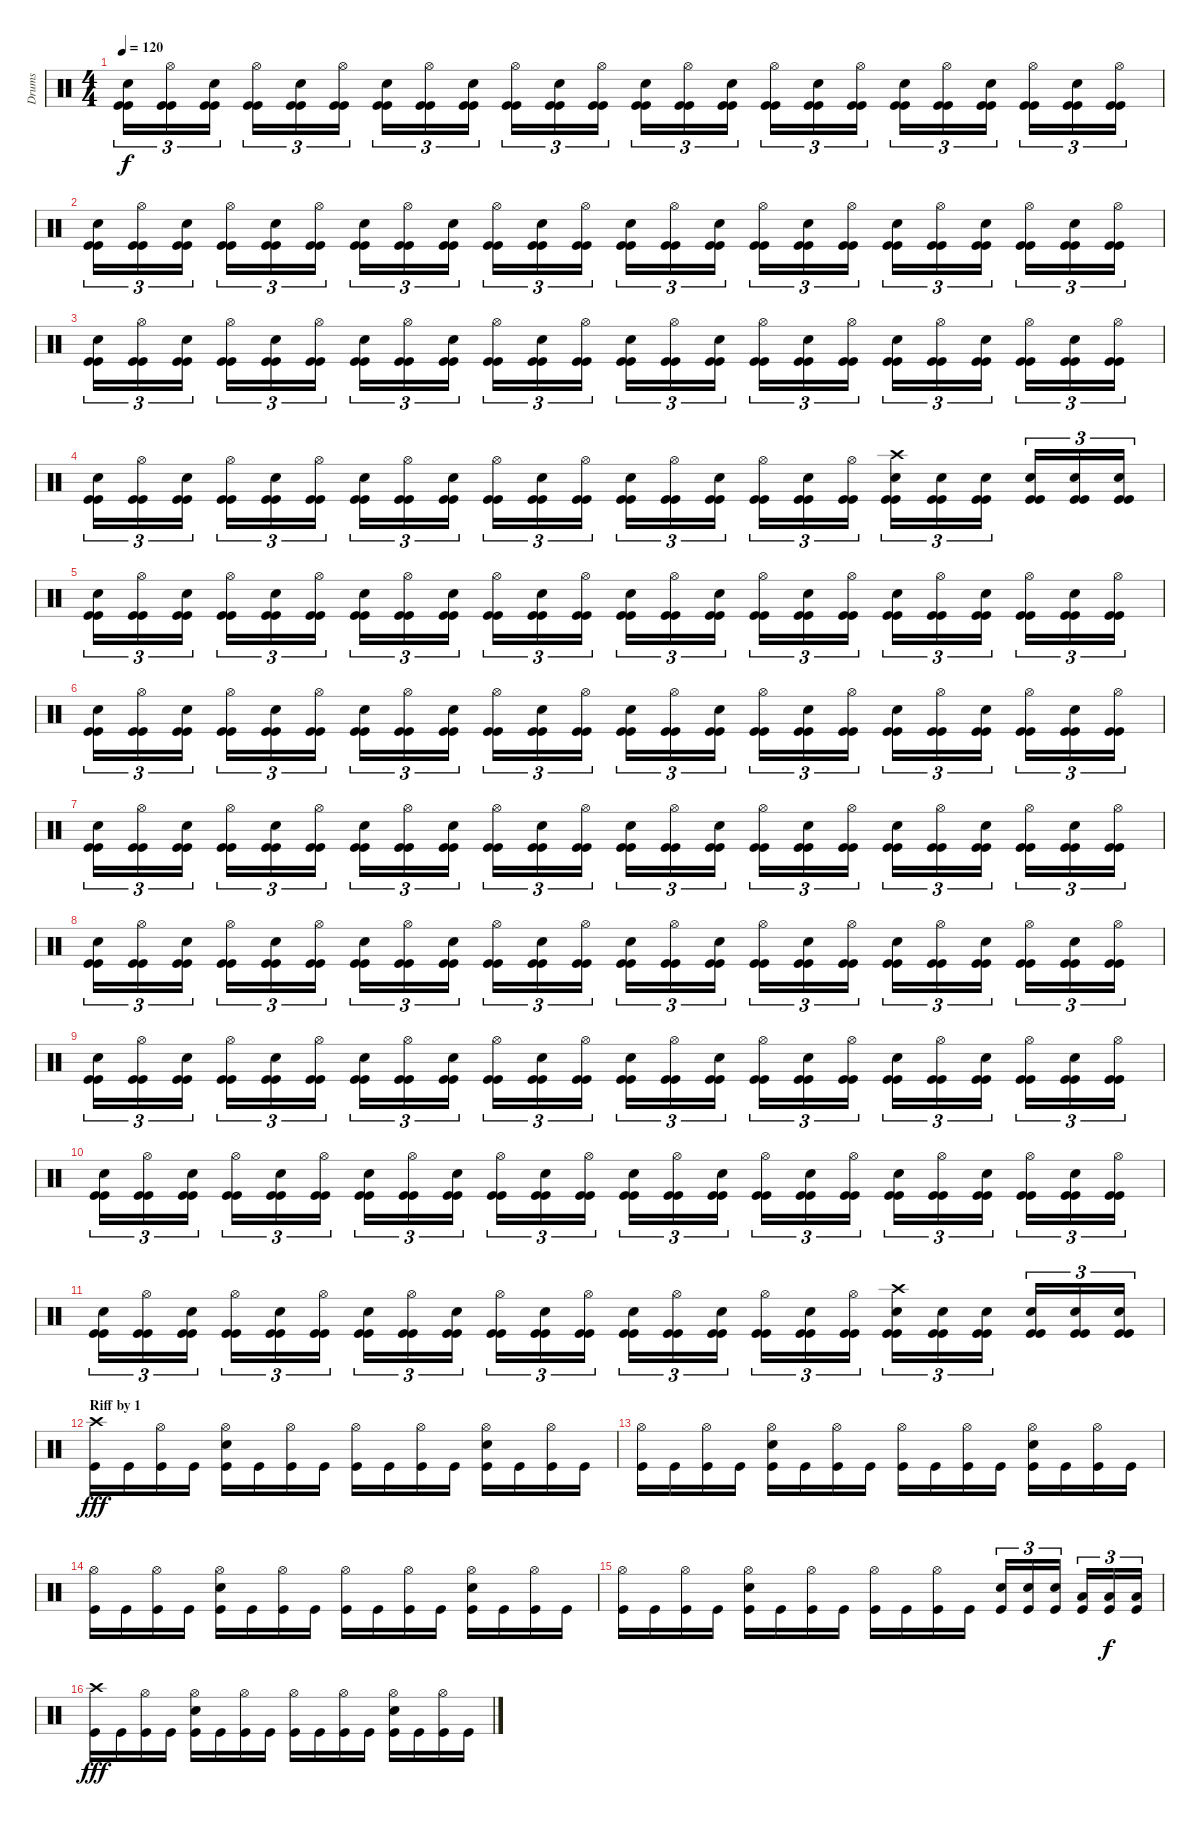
\track ("Drums" "Drums") {instrument percussion}
\staff {score}
\articulation defaults
\ts (4 4)
\tempo 120
\clef neutral
\ks c
("Electric Snare (hit)" "Kick (hit)" "Kick (hit)").16{tu (3 2) dy f} ("Hi-Hat (open)" "Kick (hit)" "Kick (hit)").16{tu (3 2)} ("Electric Snare (hit)" "Kick (hit)" "Kick (hit)").16{tu (3 2)} ("Hi-Hat (open)" "Kick (hit)" "Kick (hit)").16{tu (3 2)} ("Electric Snare (hit)" "Kick (hit)" "Kick (hit)").16{tu (3 2)} ("Hi-Hat (open)" "Kick (hit)" "Kick (hit)").16{tu (3 2)} ("Electric Snare (hit)" "Kick (hit)" "Kick (hit)").16{tu (3 2)} ("Hi-Hat (open)" "Kick (hit)" "Kick (hit)").16{tu (3 2)} ("Electric Snare (hit)" "Kick (hit)" "Kick (hit)").16{tu (3 2)} ("Hi-Hat (open)" "Kick (hit)" "Kick (hit)").16{tu (3 2)} ("Electric Snare (hit)" "Kick (hit)" "Kick (hit)").16{tu (3 2)} ("Hi-Hat (open)" "Kick (hit)" "Kick (hit)").16{tu (3 2)} ("Electric Snare (hit)" "Kick (hit)" "Kick (hit)").16{tu (3 2)} ("Hi-Hat (open)" "Kick (hit)" "Kick (hit)").16{tu (3 2)} ("Electric Snare (hit)" "Kick (hit)" "Kick (hit)").16{tu (3 2)} ("Hi-Hat (open)" "Kick (hit)" "Kick (hit)").16{tu (3 2)} ("Electric Snare (hit)" "Kick (hit)" "Kick (hit)").16{tu (3 2)} ("Hi-Hat (open)" "Kick (hit)" "Kick (hit)").16{tu (3 2)} ("Electric Snare (hit)" "Kick (hit)" "Kick (hit)").16{tu (3 2)} ("Hi-Hat (open)" "Kick (hit)" "Kick (hit)").16{tu (3 2)} ("Electric Snare (hit)" "Kick (hit)" "Kick (hit)").16{tu (3 2)} ("Hi-Hat (open)" "Kick (hit)" "Kick (hit)").16{tu (3 2)} ("Electric Snare (hit)" "Kick (hit)" "Kick (hit)").16{tu (3 2)} ("Hi-Hat (open)" "Kick (hit)" "Kick (hit)").16{tu (3 2)} |
("Electric Snare (hit)" "Kick (hit)" "Kick (hit)").16{tu (3 2)} ("Hi-Hat (open)" "Kick (hit)" "Kick (hit)").16{tu (3 2)} ("Electric Snare (hit)" "Kick (hit)" "Kick (hit)").16{tu (3 2)} ("Hi-Hat (open)" "Kick (hit)" "Kick (hit)").16{tu (3 2)} ("Electric Snare (hit)" "Kick (hit)" "Kick (hit)").16{tu (3 2)} ("Hi-Hat (open)" "Kick (hit)" "Kick (hit)").16{tu (3 2)} ("Electric Snare (hit)" "Kick (hit)" "Kick (hit)").16{tu (3 2)} ("Hi-Hat (open)" "Kick (hit)" "Kick (hit)").16{tu (3 2)} ("Electric Snare (hit)" "Kick (hit)" "Kick (hit)").16{tu (3 2)} ("Hi-Hat (open)" "Kick (hit)" "Kick (hit)").16{tu (3 2)} ("Electric Snare (hit)" "Kick (hit)" "Kick (hit)").16{tu (3 2)} ("Hi-Hat (open)" "Kick (hit)" "Kick (hit)").16{tu (3 2)} ("Electric Snare (hit)" "Kick (hit)" "Kick (hit)").16{tu (3 2)} ("Hi-Hat (open)" "Kick (hit)" "Kick (hit)").16{tu (3 2)} ("Electric Snare (hit)" "Kick (hit)" "Kick (hit)").16{tu (3 2)} ("Hi-Hat (open)" "Kick (hit)" "Kick (hit)").16{tu (3 2)} ("Electric Snare (hit)" "Kick (hit)" "Kick (hit)").16{tu (3 2)} ("Hi-Hat (open)" "Kick (hit)" "Kick (hit)").16{tu (3 2)} ("Electric Snare (hit)" "Kick (hit)" "Kick (hit)").16{tu (3 2)} ("Hi-Hat (open)" "Kick (hit)" "Kick (hit)").16{tu (3 2)} ("Electric Snare (hit)" "Kick (hit)" "Kick (hit)").16{tu (3 2)} ("Hi-Hat (open)" "Kick (hit)" "Kick (hit)").16{tu (3 2)} ("Electric Snare (hit)" "Kick (hit)" "Kick (hit)").16{tu (3 2)} ("Hi-Hat (open)" "Kick (hit)" "Kick (hit)").16{tu (3 2)} |
("Electric Snare (hit)" "Kick (hit)" "Kick (hit)").16{tu (3 2)} ("Hi-Hat (open)" "Kick (hit)" "Kick (hit)").16{tu (3 2)} ("Electric Snare (hit)" "Kick (hit)" "Kick (hit)").16{tu (3 2)} ("Hi-Hat (open)" "Kick (hit)" "Kick (hit)").16{tu (3 2)} ("Electric Snare (hit)" "Kick (hit)" "Kick (hit)").16{tu (3 2)} ("Hi-Hat (open)" "Kick (hit)" "Kick (hit)").16{tu (3 2)} ("Electric Snare (hit)" "Kick (hit)" "Kick (hit)").16{tu (3 2)} ("Hi-Hat (open)" "Kick (hit)" "Kick (hit)").16{tu (3 2)} ("Electric Snare (hit)" "Kick (hit)" "Kick (hit)").16{tu (3 2)} ("Hi-Hat (open)" "Kick (hit)" "Kick (hit)").16{tu (3 2)} ("Electric Snare (hit)" "Kick (hit)" "Kick (hit)").16{tu (3 2)} ("Hi-Hat (open)" "Kick (hit)" "Kick (hit)").16{tu (3 2)} ("Electric Snare (hit)" "Kick (hit)" "Kick (hit)").16{tu (3 2)} ("Hi-Hat (open)" "Kick (hit)" "Kick (hit)").16{tu (3 2)} ("Electric Snare (hit)" "Kick (hit)" "Kick (hit)").16{tu (3 2)} ("Hi-Hat (open)" "Kick (hit)" "Kick (hit)").16{tu (3 2)} ("Electric Snare (hit)" "Kick (hit)" "Kick (hit)").16{tu (3 2)} ("Hi-Hat (open)" "Kick (hit)" "Kick (hit)").16{tu (3 2)} ("Electric Snare (hit)" "Kick (hit)" "Kick (hit)").16{tu (3 2)} ("Hi-Hat (open)" "Kick (hit)" "Kick (hit)").16{tu (3 2)} ("Electric Snare (hit)" "Kick (hit)" "Kick (hit)").16{tu (3 2)} ("Hi-Hat (open)" "Kick (hit)" "Kick (hit)").16{tu (3 2)} ("Electric Snare (hit)" "Kick (hit)" "Kick (hit)").16{tu (3 2)} ("Hi-Hat (open)" "Kick (hit)" "Kick (hit)").16{tu (3 2)} |
("Electric Snare (hit)" "Kick (hit)" "Kick (hit)").16{tu (3 2)} ("Hi-Hat (open)" "Kick (hit)" "Kick (hit)").16{tu (3 2)} ("Electric Snare (hit)" "Kick (hit)" "Kick (hit)").16{tu (3 2)} ("Hi-Hat (open)" "Kick (hit)" "Kick (hit)").16{tu (3 2)} ("Electric Snare (hit)" "Kick (hit)" "Kick (hit)").16{tu (3 2)} ("Hi-Hat (open)" "Kick (hit)" "Kick (hit)").16{tu (3 2)} ("Electric Snare (hit)" "Kick (hit)" "Kick (hit)").16{tu (3 2)} ("Hi-Hat (open)" "Kick (hit)" "Kick (hit)").16{tu (3 2)} ("Electric Snare (hit)" "Kick (hit)" "Kick (hit)").16{tu (3 2)} ("Hi-Hat (open)" "Kick (hit)" "Kick (hit)").16{tu (3 2)} ("Electric Snare (hit)" "Kick (hit)" "Kick (hit)").16{tu (3 2)} ("Hi-Hat (open)" "Kick (hit)" "Kick (hit)").16{tu (3 2)} ("Electric Snare (hit)" "Kick (hit)" "Kick (hit)").16{tu (3 2)} ("Hi-Hat (open)" "Kick (hit)" "Kick (hit)").16{tu (3 2)} ("Electric Snare (hit)" "Kick (hit)" "Kick (hit)").16{tu (3 2)} ("Hi-Hat (open)" "Kick (hit)" "Kick (hit)").16{tu (3 2)} ("Electric Snare (hit)" "Kick (hit)" "Kick (hit)").16{tu (3 2)} ("Hi-Hat (open)" "Kick (hit)" "Kick (hit)").16{tu (3 2)} ("Crash high (hit)" "Electric Snare (hit)" "Kick (hit)" "Kick (hit)").16{tu (3 2)} ("Electric Snare (hit)" "Kick (hit)" "Kick (hit)").16{tu (3 2)} ("Electric Snare (hit)" "Kick (hit)" "Kick (hit)").16{tu (3 2)} ("Electric Snare (hit)" "Kick (hit)" "Kick (hit)").16{tu (3 2)} ("Electric Snare (hit)" "Kick (hit)" "Kick (hit)").16{tu (3 2)} ("Electric Snare (hit)" "Kick (hit)" "Kick (hit)").16{tu (3 2)} |
("Electric Snare (hit)" "Kick (hit)" "Kick (hit)").16{tu (3 2)} ("Hi-Hat (open)" "Kick (hit)" "Kick (hit)").16{tu (3 2)} ("Electric Snare (hit)" "Kick (hit)" "Kick (hit)").16{tu (3 2)} ("Hi-Hat (open)" "Kick (hit)" "Kick (hit)").16{tu (3 2)} ("Electric Snare (hit)" "Kick (hit)" "Kick (hit)").16{tu (3 2)} ("Hi-Hat (open)" "Kick (hit)" "Kick (hit)").16{tu (3 2)} ("Electric Snare (hit)" "Kick (hit)" "Kick (hit)").16{tu (3 2)} ("Hi-Hat (open)" "Kick (hit)" "Kick (hit)").16{tu (3 2)} ("Electric Snare (hit)" "Kick (hit)" "Kick (hit)").16{tu (3 2)} ("Hi-Hat (open)" "Kick (hit)" "Kick (hit)").16{tu (3 2)} ("Electric Snare (hit)" "Kick (hit)" "Kick (hit)").16{tu (3 2)} ("Hi-Hat (open)" "Kick (hit)" "Kick (hit)").16{tu (3 2)} ("Electric Snare (hit)" "Kick (hit)" "Kick (hit)").16{tu (3 2)} ("Hi-Hat (open)" "Kick (hit)" "Kick (hit)").16{tu (3 2)} ("Electric Snare (hit)" "Kick (hit)" "Kick (hit)").16{tu (3 2)} ("Hi-Hat (open)" "Kick (hit)" "Kick (hit)").16{tu (3 2)} ("Electric Snare (hit)" "Kick (hit)" "Kick (hit)").16{tu (3 2)} ("Hi-Hat (open)" "Kick (hit)" "Kick (hit)").16{tu (3 2)} ("Electric Snare (hit)" "Kick (hit)" "Kick (hit)").16{tu (3 2)} ("Hi-Hat (open)" "Kick (hit)" "Kick (hit)").16{tu (3 2)} ("Electric Snare (hit)" "Kick (hit)" "Kick (hit)").16{tu (3 2)} ("Hi-Hat (open)" "Kick (hit)" "Kick (hit)").16{tu (3 2)} ("Electric Snare (hit)" "Kick (hit)" "Kick (hit)").16{tu (3 2)} ("Hi-Hat (open)" "Kick (hit)" "Kick (hit)").16{tu (3 2)} |
("Electric Snare (hit)" "Kick (hit)" "Kick (hit)").16{tu (3 2)} ("Hi-Hat (open)" "Kick (hit)" "Kick (hit)").16{tu (3 2)} ("Electric Snare (hit)" "Kick (hit)" "Kick (hit)").16{tu (3 2)} ("Hi-Hat (open)" "Kick (hit)" "Kick (hit)").16{tu (3 2)} ("Electric Snare (hit)" "Kick (hit)" "Kick (hit)").16{tu (3 2)} ("Hi-Hat (open)" "Kick (hit)" "Kick (hit)").16{tu (3 2)} ("Electric Snare (hit)" "Kick (hit)" "Kick (hit)").16{tu (3 2)} ("Hi-Hat (open)" "Kick (hit)" "Kick (hit)").16{tu (3 2)} ("Electric Snare (hit)" "Kick (hit)" "Kick (hit)").16{tu (3 2)} ("Hi-Hat (open)" "Kick (hit)" "Kick (hit)").16{tu (3 2)} ("Electric Snare (hit)" "Kick (hit)" "Kick (hit)").16{tu (3 2)} ("Hi-Hat (open)" "Kick (hit)" "Kick (hit)").16{tu (3 2)} ("Electric Snare (hit)" "Kick (hit)" "Kick (hit)").16{tu (3 2)} ("Hi-Hat (open)" "Kick (hit)" "Kick (hit)").16{tu (3 2)} ("Electric Snare (hit)" "Kick (hit)" "Kick (hit)").16{tu (3 2)} ("Hi-Hat (open)" "Kick (hit)" "Kick (hit)").16{tu (3 2)} ("Electric Snare (hit)" "Kick (hit)" "Kick (hit)").16{tu (3 2)} ("Hi-Hat (open)" "Kick (hit)" "Kick (hit)").16{tu (3 2)} ("Electric Snare (hit)" "Kick (hit)" "Kick (hit)").16{tu (3 2)} ("Hi-Hat (open)" "Kick (hit)" "Kick (hit)").16{tu (3 2)} ("Electric Snare (hit)" "Kick (hit)" "Kick (hit)").16{tu (3 2)} ("Hi-Hat (open)" "Kick (hit)" "Kick (hit)").16{tu (3 2)} ("Electric Snare (hit)" "Kick (hit)" "Kick (hit)").16{tu (3 2)} ("Hi-Hat (open)" "Kick (hit)" "Kick (hit)").16{tu (3 2)} |
("Electric Snare (hit)" "Kick (hit)" "Kick (hit)").16{tu (3 2)} ("Hi-Hat (open)" "Kick (hit)" "Kick (hit)").16{tu (3 2)} ("Electric Snare (hit)" "Kick (hit)" "Kick (hit)").16{tu (3 2)} ("Hi-Hat (open)" "Kick (hit)" "Kick (hit)").16{tu (3 2)} ("Electric Snare (hit)" "Kick (hit)" "Kick (hit)").16{tu (3 2)} ("Hi-Hat (open)" "Kick (hit)" "Kick (hit)").16{tu (3 2)} ("Electric Snare (hit)" "Kick (hit)" "Kick (hit)").16{tu (3 2)} ("Hi-Hat (open)" "Kick (hit)" "Kick (hit)").16{tu (3 2)} ("Electric Snare (hit)" "Kick (hit)" "Kick (hit)").16{tu (3 2)} ("Hi-Hat (open)" "Kick (hit)" "Kick (hit)").16{tu (3 2)} ("Electric Snare (hit)" "Kick (hit)" "Kick (hit)").16{tu (3 2)} ("Hi-Hat (open)" "Kick (hit)" "Kick (hit)").16{tu (3 2)} ("Electric Snare (hit)" "Kick (hit)" "Kick (hit)").16{tu (3 2)} ("Hi-Hat (open)" "Kick (hit)" "Kick (hit)").16{tu (3 2)} ("Electric Snare (hit)" "Kick (hit)" "Kick (hit)").16{tu (3 2)} ("Hi-Hat (open)" "Kick (hit)" "Kick (hit)").16{tu (3 2)} ("Electric Snare (hit)" "Kick (hit)" "Kick (hit)").16{tu (3 2)} ("Hi-Hat (open)" "Kick (hit)" "Kick (hit)").16{tu (3 2)} ("Electric Snare (hit)" "Kick (hit)" "Kick (hit)").16{tu (3 2)} ("Hi-Hat (open)" "Kick (hit)" "Kick (hit)").16{tu (3 2)} ("Electric Snare (hit)" "Kick (hit)" "Kick (hit)").16{tu (3 2)} ("Hi-Hat (open)" "Kick (hit)" "Kick (hit)").16{tu (3 2)} ("Electric Snare (hit)" "Kick (hit)" "Kick (hit)").16{tu (3 2)} ("Hi-Hat (open)" "Kick (hit)" "Kick (hit)").16{tu (3 2)} |
("Electric Snare (hit)" "Kick (hit)" "Kick (hit)").16{tu (3 2)} ("Hi-Hat (open)" "Kick (hit)" "Kick (hit)").16{tu (3 2)} ("Electric Snare (hit)" "Kick (hit)" "Kick (hit)").16{tu (3 2)} ("Hi-Hat (open)" "Kick (hit)" "Kick (hit)").16{tu (3 2)} ("Electric Snare (hit)" "Kick (hit)" "Kick (hit)").16{tu (3 2)} ("Hi-Hat (open)" "Kick (hit)" "Kick (hit)").16{tu (3 2)} ("Electric Snare (hit)" "Kick (hit)" "Kick (hit)").16{tu (3 2)} ("Hi-Hat (open)" "Kick (hit)" "Kick (hit)").16{tu (3 2)} ("Electric Snare (hit)" "Kick (hit)" "Kick (hit)").16{tu (3 2)} ("Hi-Hat (open)" "Kick (hit)" "Kick (hit)").16{tu (3 2)} ("Electric Snare (hit)" "Kick (hit)" "Kick (hit)").16{tu (3 2)} ("Hi-Hat (open)" "Kick (hit)" "Kick (hit)").16{tu (3 2)} ("Electric Snare (hit)" "Kick (hit)" "Kick (hit)").16{tu (3 2)} ("Hi-Hat (open)" "Kick (hit)" "Kick (hit)").16{tu (3 2)} ("Electric Snare (hit)" "Kick (hit)" "Kick (hit)").16{tu (3 2)} ("Hi-Hat (open)" "Kick (hit)" "Kick (hit)").16{tu (3 2)} ("Electric Snare (hit)" "Kick (hit)" "Kick (hit)").16{tu (3 2)} ("Hi-Hat (open)" "Kick (hit)" "Kick (hit)").16{tu (3 2)} ("Electric Snare (hit)" "Kick (hit)" "Kick (hit)").16{tu (3 2)} ("Hi-Hat (open)" "Kick (hit)" "Kick (hit)").16{tu (3 2)} ("Electric Snare (hit)" "Kick (hit)" "Kick (hit)").16{tu (3 2)} ("Hi-Hat (open)" "Kick (hit)" "Kick (hit)").16{tu (3 2)} ("Electric Snare (hit)" "Kick (hit)" "Kick (hit)").16{tu (3 2)} ("Hi-Hat (open)" "Kick (hit)" "Kick (hit)").16{tu (3 2)} |
("Electric Snare (hit)" "Kick (hit)" "Kick (hit)").16{tu (3 2)} ("Hi-Hat (open)" "Kick (hit)" "Kick (hit)").16{tu (3 2)} ("Electric Snare (hit)" "Kick (hit)" "Kick (hit)").16{tu (3 2)} ("Hi-Hat (open)" "Kick (hit)" "Kick (hit)").16{tu (3 2)} ("Electric Snare (hit)" "Kick (hit)" "Kick (hit)").16{tu (3 2)} ("Hi-Hat (open)" "Kick (hit)" "Kick (hit)").16{tu (3 2)} ("Electric Snare (hit)" "Kick (hit)" "Kick (hit)").16{tu (3 2)} ("Hi-Hat (open)" "Kick (hit)" "Kick (hit)").16{tu (3 2)} ("Electric Snare (hit)" "Kick (hit)" "Kick (hit)").16{tu (3 2)} ("Hi-Hat (open)" "Kick (hit)" "Kick (hit)").16{tu (3 2)} ("Electric Snare (hit)" "Kick (hit)" "Kick (hit)").16{tu (3 2)} ("Hi-Hat (open)" "Kick (hit)" "Kick (hit)").16{tu (3 2)} ("Electric Snare (hit)" "Kick (hit)" "Kick (hit)").16{tu (3 2)} ("Hi-Hat (open)" "Kick (hit)" "Kick (hit)").16{tu (3 2)} ("Electric Snare (hit)" "Kick (hit)" "Kick (hit)").16{tu (3 2)} ("Hi-Hat (open)" "Kick (hit)" "Kick (hit)").16{tu (3 2)} ("Electric Snare (hit)" "Kick (hit)" "Kick (hit)").16{tu (3 2)} ("Hi-Hat (open)" "Kick (hit)" "Kick (hit)").16{tu (3 2)} ("Electric Snare (hit)" "Kick (hit)" "Kick (hit)").16{tu (3 2)} ("Hi-Hat (open)" "Kick (hit)" "Kick (hit)").16{tu (3 2)} ("Electric Snare (hit)" "Kick (hit)" "Kick (hit)").16{tu (3 2)} ("Hi-Hat (open)" "Kick (hit)" "Kick (hit)").16{tu (3 2)} ("Electric Snare (hit)" "Kick (hit)" "Kick (hit)").16{tu (3 2)} ("Hi-Hat (open)" "Kick (hit)" "Kick (hit)").16{tu (3 2)} |
("Electric Snare (hit)" "Kick (hit)" "Kick (hit)").16{tu (3 2)} ("Hi-Hat (open)" "Kick (hit)" "Kick (hit)").16{tu (3 2)} ("Electric Snare (hit)" "Kick (hit)" "Kick (hit)").16{tu (3 2)} ("Hi-Hat (open)" "Kick (hit)" "Kick (hit)").16{tu (3 2)} ("Electric Snare (hit)" "Kick (hit)" "Kick (hit)").16{tu (3 2)} ("Hi-Hat (open)" "Kick (hit)" "Kick (hit)").16{tu (3 2)} ("Electric Snare (hit)" "Kick (hit)" "Kick (hit)").16{tu (3 2)} ("Hi-Hat (open)" "Kick (hit)" "Kick (hit)").16{tu (3 2)} ("Electric Snare (hit)" "Kick (hit)" "Kick (hit)").16{tu (3 2)} ("Hi-Hat (open)" "Kick (hit)" "Kick (hit)").16{tu (3 2)} ("Electric Snare (hit)" "Kick (hit)" "Kick (hit)").16{tu (3 2)} ("Hi-Hat (open)" "Kick (hit)" "Kick (hit)").16{tu (3 2)} ("Electric Snare (hit)" "Kick (hit)" "Kick (hit)").16{tu (3 2)} ("Hi-Hat (open)" "Kick (hit)" "Kick (hit)").16{tu (3 2)} ("Electric Snare (hit)" "Kick (hit)" "Kick (hit)").16{tu (3 2)} ("Hi-Hat (open)" "Kick (hit)" "Kick (hit)").16{tu (3 2)} ("Electric Snare (hit)" "Kick (hit)" "Kick (hit)").16{tu (3 2)} ("Hi-Hat (open)" "Kick (hit)" "Kick (hit)").16{tu (3 2)} ("Electric Snare (hit)" "Kick (hit)" "Kick (hit)").16{tu (3 2)} ("Hi-Hat (open)" "Kick (hit)" "Kick (hit)").16{tu (3 2)} ("Electric Snare (hit)" "Kick (hit)" "Kick (hit)").16{tu (3 2)} ("Hi-Hat (open)" "Kick (hit)" "Kick (hit)").16{tu (3 2)} ("Electric Snare (hit)" "Kick (hit)" "Kick (hit)").16{tu (3 2)} ("Hi-Hat (open)" "Kick (hit)" "Kick (hit)").16{tu (3 2)} |
("Electric Snare (hit)" "Kick (hit)" "Kick (hit)").16{tu (3 2)} ("Hi-Hat (open)" "Kick (hit)" "Kick (hit)").16{tu (3 2)} ("Electric Snare (hit)" "Kick (hit)" "Kick (hit)").16{tu (3 2)} ("Hi-Hat (open)" "Kick (hit)" "Kick (hit)").16{tu (3 2)} ("Electric Snare (hit)" "Kick (hit)" "Kick (hit)").16{tu (3 2)} ("Hi-Hat (open)" "Kick (hit)" "Kick (hit)").16{tu (3 2)} ("Electric Snare (hit)" "Kick (hit)" "Kick (hit)").16{tu (3 2)} ("Hi-Hat (open)" "Kick (hit)" "Kick (hit)").16{tu (3 2)} ("Electric Snare (hit)" "Kick (hit)" "Kick (hit)").16{tu (3 2)} ("Hi-Hat (open)" "Kick (hit)" "Kick (hit)").16{tu (3 2)} ("Electric Snare (hit)" "Kick (hit)" "Kick (hit)").16{tu (3 2)} ("Hi-Hat (open)" "Kick (hit)" "Kick (hit)").16{tu (3 2)} ("Electric Snare (hit)" "Kick (hit)" "Kick (hit)").16{tu (3 2)} ("Hi-Hat (open)" "Kick (hit)" "Kick (hit)").16{tu (3 2)} ("Electric Snare (hit)" "Kick (hit)" "Kick (hit)").16{tu (3 2)} ("Hi-Hat (open)" "Kick (hit)" "Kick (hit)").16{tu (3 2)} ("Electric Snare (hit)" "Kick (hit)" "Kick (hit)").16{tu (3 2)} ("Hi-Hat (open)" "Kick (hit)" "Kick (hit)").16{tu (3 2)} ("Crash high (hit)" "Electric Snare (hit)" "Kick (hit)" "Kick (hit)").16{tu (3 2)} ("Electric Snare (hit)" "Kick (hit)" "Kick (hit)").16{tu (3 2)} ("Electric Snare (hit)" "Kick (hit)" "Kick (hit)").16{tu (3 2)} ("Electric Snare (hit)" "Kick (hit)" "Kick (hit)").16{tu (3 2)} ("Electric Snare (hit)" "Kick (hit)" "Kick (hit)").16{tu (3 2)} ("Electric Snare (hit)" "Kick (hit)" "Kick (hit)").16{tu (3 2)} |
\section ("" "Riff by 1")
("Crash high (hit)" "Kick (hit)").16{dy fff} "Kick (hit)".16 ("Hi-Hat (open)" "Kick (hit)").16 "Kick (hit)".16 ("Hi-Hat (open)" "Electric Snare (hit)" "Kick (hit)").16 "Kick (hit)".16 ("Hi-Hat (open)" "Kick (hit)").16 "Kick (hit)".16 ("Hi-Hat (open)" "Kick (hit)").16 "Kick (hit)".16 ("Hi-Hat (open)" "Kick (hit)").16 "Kick (hit)".16 ("Hi-Hat (open)" "Electric Snare (hit)" "Kick (hit)").16 "Kick (hit)".16 ("Hi-Hat (open)" "Kick (hit)").16 "Kick (hit)".16 |
("Hi-Hat (open)" "Kick (hit)").16 "Kick (hit)".16 ("Hi-Hat (open)" "Kick (hit)").16 "Kick (hit)".16 ("Hi-Hat (open)" "Electric Snare (hit)" "Kick (hit)").16 "Kick (hit)".16 ("Hi-Hat (open)" "Kick (hit)").16 "Kick (hit)".16 ("Hi-Hat (open)" "Kick (hit)").16 "Kick (hit)".16 ("Hi-Hat (open)" "Kick (hit)").16 "Kick (hit)".16 ("Hi-Hat (open)" "Electric Snare (hit)" "Kick (hit)").16 "Kick (hit)".16 ("Hi-Hat (open)" "Kick (hit)").16 "Kick (hit)".16 |
("Hi-Hat (open)" "Kick (hit)").16 "Kick (hit)".16 ("Hi-Hat (open)" "Kick (hit)").16 "Kick (hit)".16 ("Hi-Hat (open)" "Electric Snare (hit)" "Kick (hit)").16 "Kick (hit)".16 ("Hi-Hat (open)" "Kick (hit)").16 "Kick (hit)".16 ("Hi-Hat (open)" "Kick (hit)").16 "Kick (hit)".16 ("Hi-Hat (open)" "Kick (hit)").16 "Kick (hit)".16 ("Hi-Hat (open)" "Electric Snare (hit)" "Kick (hit)").16 "Kick (hit)".16 ("Hi-Hat (open)" "Kick (hit)").16 "Kick (hit)".16 |
("Hi-Hat (open)" "Kick (hit)").16 "Kick (hit)".16 ("Hi-Hat (open)" "Kick (hit)").16 "Kick (hit)".16 ("Hi-Hat (open)" "Electric Snare (hit)" "Kick (hit)").16 "Kick (hit)".16 ("Hi-Hat (open)" "Kick (hit)").16 "Kick (hit)".16 ("Hi-Hat (open)" "Kick (hit)").16 "Kick (hit)".16 ("Hi-Hat (open)" "Kick (hit)").16 "Kick (hit)".16 ("Electric Snare (hit)" "Kick (hit)").16{tu (3 2)} ("Electric Snare (hit)" "Kick (hit)").16{tu (3 2)} ("Electric Snare (hit)" "Kick (hit)").16{tu (3 2)} ("Low Tom (hit)" "Kick (hit)").16{tu (3 2)} ("Low Tom (hit)" "Kick (hit)").16{tu (3 2) dy f} ("Low Tom (hit)" "Kick (hit)").16{tu (3 2)} |
("Crash high (hit)" "Kick (hit)").16{dy fff} "Kick (hit)".16 ("Hi-Hat (open)" "Kick (hit)").16 "Kick (hit)".16 ("Hi-Hat (open)" "Electric Snare (hit)" "Kick (hit)").16 "Kick (hit)".16 ("Hi-Hat (open)" "Kick (hit)").16 "Kick (hit)".16 ("Hi-Hat (open)" "Kick (hit)").16 "Kick (hit)".16 ("Hi-Hat (open)" "Kick (hit)").16 "Kick (hit)".16 ("Hi-Hat (open)" "Electric Snare (hit)" "Kick (hit)").16 "Kick (hit)".16 ("Hi-Hat (open)" "Kick (hit)").16 "Kick (hit)".16
